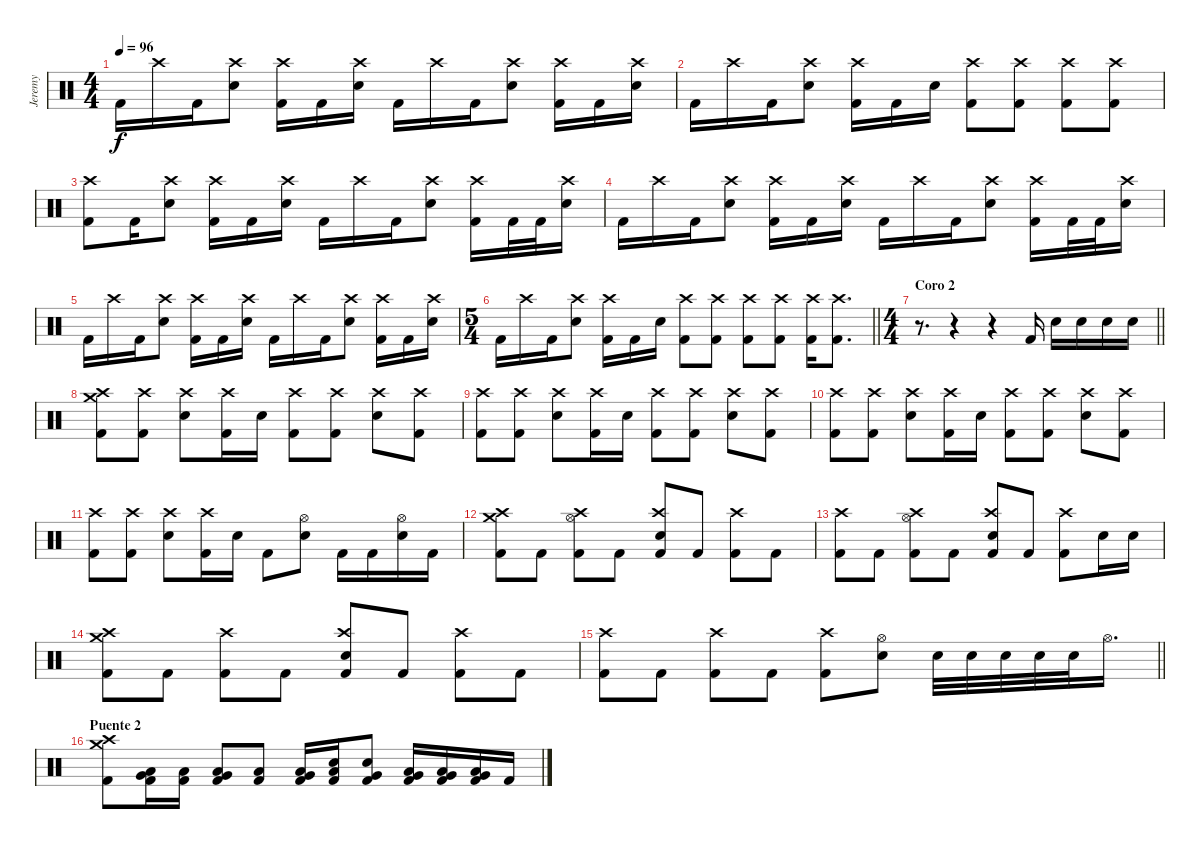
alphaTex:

\track ("Jeremy" "Jeremy") {instrument percussion}
\staff {score}
\articulation defaults
\ts (4 4)
\tempo 96
\clef neutral
\ks c "Kick (hit) 2".16{dy f} "Crash high (hit)".16 "Kick (hit) 2".16
("Crash high (hit)" "Snare (hit) 2").8 ("Crash high (hit)" "Kick (hit) 2").16 "Kick (hit) 2".16 ("Crash high (hit)" "Snare (hit) 2").16 "Kick (hit) 2".16 "Crash high (hit)".16 "Kick (hit) 2".16 ("Crash high (hit)" "Snare (hit) 2").8 ("Crash high (hit)" "Kick (hit) 2").16 "Kick (hit) 2".16 ("Crash high (hit)" "Snare (hit) 2").16 |
"Kick (hit) 2".16 "Crash high (hit)".16 "Kick (hit) 2".16 ("Crash high (hit)" "Snare (hit) 2").8 ("Crash high (hit)" "Kick (hit) 2").16 "Kick (hit) 2".16 "Snare (hit) 2".16 ("Crash high (hit)" "Kick (hit) 2").8 ("Crash high (hit)" "Kick (hit) 2").8 ("Crash high (hit)" "Kick (hit) 2").8 ("Crash high (hit)" "Kick (hit) 2").8 |
("Crash high (hit)" "Kick (hit) 2").8 "Kick (hit) 2".16 ("Crash high (hit)" "Snare (hit) 2").8 ("Crash high (hit)" "Kick (hit) 2").16 "Kick (hit) 2".16 ("Crash high (hit)" "Snare (hit) 2").16 "Kick (hit) 2".16 "Crash high (hit)".16 "Kick (hit) 2".16 ("Crash high (hit)" "Snare (hit) 2").8 ("Crash high (hit)" "Kick (hit) 2").16 "Kick (hit) 2".32 "Kick (hit) 2".32 ("Crash high (hit)" "Snare (hit) 2").16 |
"Kick (hit) 2".16 "Crash high (hit)".16 "Kick (hit) 2".16 ("Crash high (hit)" "Snare (hit) 2").8 ("Crash high (hit)" "Kick (hit) 2").16 "Kick (hit) 2".16 ("Crash high (hit)" "Snare (hit) 2").16 "Kick (hit) 2".16 "Crash high (hit)".16 "Kick (hit) 2".16 ("Crash high (hit)" "Snare (hit) 2").8 ("Crash high (hit)" "Kick (hit) 2").16 "Kick (hit) 2".32 "Kick (hit) 2".32 ("Crash high (hit)" "Snare (hit) 2").16 |
"Kick (hit) 2".16 "Crash high (hit)".16 "Kick (hit) 2".16 ("Crash high (hit)" "Snare (hit) 2").8 ("Crash high (hit)" "Kick (hit) 2").16 "Kick (hit) 2".16 ("Crash high (hit)" "Snare (hit) 2").16 "Kick (hit) 2".16 "Crash high (hit)".16 "Kick (hit) 2".16 ("Crash high (hit)" "Snare (hit) 2").8 ("Crash high (hit)" "Kick (hit) 2").16 "Kick (hit) 2".16 ("Crash high (hit)" "Snare (hit) 2").16 |
\ts (5 4)
\barLineRight lightlight "Kick (hit) 2".16 "Crash high (hit)".16 "Kick (hit) 2".16
("Crash high (hit)" "Snare (hit) 2").8 ("Crash high (hit)" "Kick (hit) 2").16 "Kick (hit) 2".16 "Snare (hit) 2".16 ("Crash high (hit)" "Kick (hit) 2").8 ("Crash high (hit)" "Kick (hit) 2").8 ("Crash high (hit)" "Kick (hit) 2").8 ("Crash high (hit)" "Kick (hit) 2").8 ("Crash high (hit)" "Kick (hit) 2").16 ("Crash high (hit)" "Kick (hit) 2").8{d} |
\ts (4 4)
\section ("" "Coro 2")
\barLineRight lightlight
r.8{d} r.4 r.4 "Kick (hit) 2".16 "Snare (hit) 2".16 "Snare (hit) 2".16 "Snare (hit) 2".16 "Snare (hit) 2".16 |
("Crash medium (hit)" "Crash high (hit)" "Kick (hit) 2").8 ("Crash high (hit)" "Kick (hit) 2").8 ("Crash high (hit)" "Snare (hit) 2").8 ("Crash high (hit)" "Kick (hit) 2").16 "Snare (hit) 2".16 ("Crash high (hit)" "Kick (hit) 2").8 ("Crash high (hit)" "Kick (hit) 2").8 ("Crash high (hit)" "Snare (hit) 2").8 ("Crash high (hit)" "Kick (hit) 2").8 |
("Crash high (hit)" "Kick (hit) 2").8 ("Crash high (hit)" "Kick (hit) 2").8 ("Crash high (hit)" "Snare (hit) 2").8 ("Crash high (hit)" "Kick (hit) 2").16 "Snare (hit) 2".16 ("Crash high (hit)" "Kick (hit) 2").8 ("Crash high (hit)" "Kick (hit) 2").8 ("Crash high (hit)" "Snare (hit) 2").8 ("Crash high (hit)" "Kick (hit) 2").8 |
("Crash high (hit)" "Kick (hit) 2").8 ("Crash high (hit)" "Kick (hit) 2").8 ("Crash high (hit)" "Snare (hit) 2").8 ("Crash high (hit)" "Kick (hit) 2").16 "Snare (hit) 2".16 ("Crash high (hit)" "Kick (hit) 2").8 ("Crash high (hit)" "Kick (hit) 2").8 ("Crash high (hit)" "Snare (hit) 2").8 ("Crash high (hit)" "Kick (hit) 2").8 |
("Crash high (hit)" "Kick (hit) 2").8 ("Crash high (hit)" "Kick (hit) 2").8 ("Crash high (hit)" "Snare (hit) 2").8 ("Crash high (hit)" "Kick (hit) 2").16 "Snare (hit) 2".16 "Kick (hit) 2".8 ("Hi-Hat (open)" "Snare (hit) 2").8 "Kick (hit) 2".16 "Kick (hit) 2".16 ("Hi-Hat (open)" "Snare (hit) 2").16 "Kick (hit) 2".16 |
("Crash medium (hit)" "Crash high (hit)" "Kick (hit) 2").8 "Kick (hit) 2".8 ("Crash high (hit)" "Hi-Hat (open)" "Kick (hit) 2").8 "Kick (hit) 2".8 ("Crash high (hit)" "Snare (hit) 2" "Kick (hit) 2").8 "Kick (hit) 2".8 ("Crash high (hit)" "Kick (hit) 2").8 "Kick (hit) 2".8 |
("Crash high (hit)" "Kick (hit) 2").8 "Kick (hit) 2".8 ("Crash high (hit)" "Hi-Hat (open)" "Kick (hit) 2").8 "Kick (hit) 2".8 ("Crash high (hit)" "Snare (hit) 2" "Kick (hit) 2").8 "Kick (hit) 2".8 ("Crash high (hit)" "Kick (hit) 2").8 "Snare (hit) 2".16 "Snare (hit) 2".16 |
("Crash medium (hit)" "Crash high (hit)" "Kick (hit) 2").8 "Kick (hit) 2".8 ("Crash high (hit)" "Kick (hit) 2").8 "Kick (hit) 2".8 ("Crash high (hit)" "Snare (hit) 2" "Kick (hit) 2").8 "Kick (hit) 2".8 ("Crash high (hit)" "Kick (hit) 2").8 "Kick (hit) 2".8 |
\barLineRight lightlight
("Crash high (hit)" "Kick (hit) 2").8 "Kick (hit) 2".8 ("Crash high (hit)" "Kick (hit) 2").8 "Kick (hit) 2".8 ("Crash high (hit)" "Kick (hit) 2").8 ("Hi-Hat (open)" "Snare (hit) 2").8 "Snare (hit) 2".32 "Snare (hit) 2".32 "Snare (hit) 2".32 "Snare (hit) 2".32 "Snare (hit) 2".32 "Hi-Hat (open)".16{d} |
\section ("" "Puente 2")
("Crash medium (hit)" "Crash high (hit)" "Kick (hit) 2").8 ("Very Low Tom (hit)" "Low Floor Tom (hit)" "Kick (hit) 2").16 ("Low Tom (hit)" "Kick (hit) 2").16 ("Very Low Tom (hit)" "Low Floor Tom (hit)" "Kick (hit) 2").8 ("Low Tom (hit)" "Kick (hit) 2").8 ("Very Low Tom (hit)" "Low Floor Tom (hit)" "Kick (hit) 2").16 ("Low Tom (hit)" "Snare (hit)" "Kick (hit) 2").16 ("Very Low Tom (hit)" "Snare (hit)" "Kick (hit) 2").8 ("Very Low Tom (hit)" "Low Floor Tom (hit)" "Kick (hit) 2").16 ("Very Low Tom (hit)" "Low Floor Tom (hit)" "Kick (hit) 2").16 ("Very Low Tom (hit)" "Low Floor Tom (hit)" "Kick (hit) 2").16 "Kick (hit) 2".16
